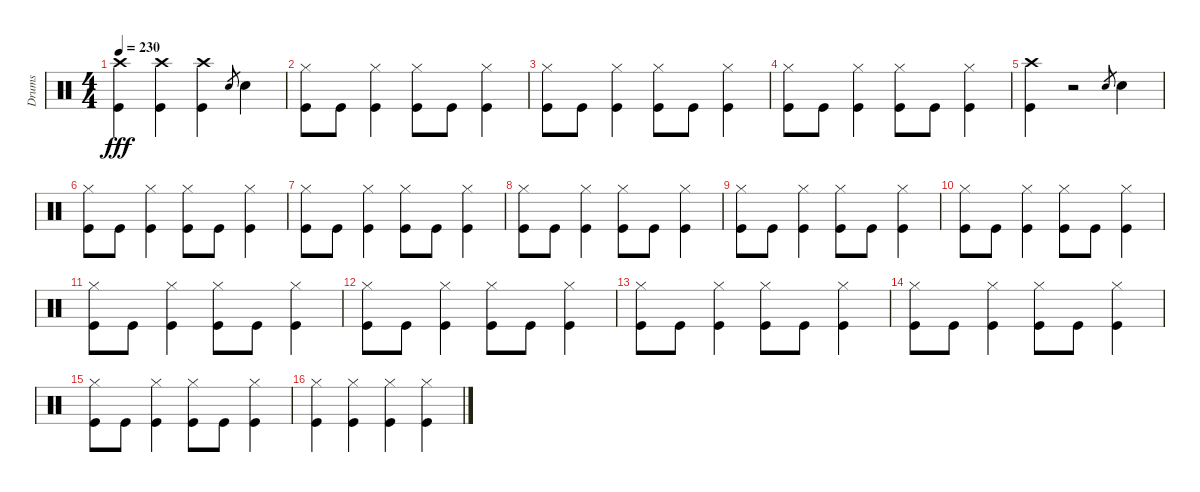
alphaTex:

\track ("Drums" "Drums") {instrument percussion}
\staff {score}
\articulation defaults
\ts (4 4)
\tempo 230
\clef neutral
\ks c
("Crash high (hit)" "Kick (hit)").4{dy fff} ("Crash high (hit)" "Kick (hit)").4 ("Crash high (hit)" "Kick (hit)").4 "Snare (hit) 2".8{gr} "Snare (hit) 2".4 |
("Hi-Hat (closed)" "Kick (hit)").8 "Kick (hit)".8 ("Hi-Hat (closed)" "Kick (hit)").4 ("Hi-Hat (closed)" "Kick (hit)").8 "Kick (hit)".8 ("Hi-Hat (closed)" "Kick (hit)").4 |
("Hi-Hat (closed)" "Kick (hit)").8 "Kick (hit)".8 ("Hi-Hat (closed)" "Kick (hit)").4 ("Hi-Hat (closed)" "Kick (hit)").8 "Kick (hit)".8 ("Hi-Hat (closed)" "Kick (hit)").4 |
("Hi-Hat (closed)" "Kick (hit)").8 "Kick (hit)".8 ("Hi-Hat (closed)" "Kick (hit)").4 ("Hi-Hat (closed)" "Kick (hit)").8 "Kick (hit)".8 ("Hi-Hat (closed)" "Kick (hit)").4 |
("Crash high (hit)" "Kick (hit)").4 r.2 "Snare (hit) 2".8{gr} "Snare (hit) 2".4 |
("Hi-Hat (closed)" "Kick (hit)").8 "Kick (hit)".8 ("Hi-Hat (closed)" "Kick (hit)").4 ("Hi-Hat (closed)" "Kick (hit)").8 "Kick (hit)".8 ("Hi-Hat (closed)" "Kick (hit)").4 |
("Hi-Hat (closed)" "Kick (hit)").8 "Kick (hit)".8 ("Hi-Hat (closed)" "Kick (hit)").4 ("Hi-Hat (closed)" "Kick (hit)").8 "Kick (hit)".8 ("Hi-Hat (closed)" "Kick (hit)").4 |
("Hi-Hat (closed)" "Kick (hit)").8 "Kick (hit)".8 ("Hi-Hat (closed)" "Kick (hit)").4 ("Hi-Hat (closed)" "Kick (hit)").8 "Kick (hit)".8 ("Hi-Hat (closed)" "Kick (hit)").4 |
("Hi-Hat (closed)" "Kick (hit)").8 "Kick (hit)".8 ("Hi-Hat (closed)" "Kick (hit)").4 ("Hi-Hat (closed)" "Kick (hit)").8 "Kick (hit)".8 ("Hi-Hat (closed)" "Kick (hit)").4 |
("Hi-Hat (closed)" "Kick (hit)").8 "Kick (hit)".8 ("Hi-Hat (closed)" "Kick (hit)").4 ("Hi-Hat (closed)" "Kick (hit)").8 "Kick (hit)".8 ("Hi-Hat (closed)" "Kick (hit)").4 |
("Hi-Hat (closed)" "Kick (hit)").8 "Kick (hit)".8 ("Hi-Hat (closed)" "Kick (hit)").4 ("Hi-Hat (closed)" "Kick (hit)").8 "Kick (hit)".8 ("Hi-Hat (closed)" "Kick (hit)").4 |
("Hi-Hat (closed)" "Kick (hit)").8 "Kick (hit)".8 ("Hi-Hat (closed)" "Kick (hit)").4 ("Hi-Hat (closed)" "Kick (hit)").8 "Kick (hit)".8 ("Hi-Hat (closed)" "Kick (hit)").4 |
("Hi-Hat (closed)" "Kick (hit)").8 "Kick (hit)".8 ("Hi-Hat (closed)" "Kick (hit)").4 ("Hi-Hat (closed)" "Kick (hit)").8 "Kick (hit)".8 ("Hi-Hat (closed)" "Kick (hit)").4 |
("Hi-Hat (closed)" "Kick (hit)").8 "Kick (hit)".8 ("Hi-Hat (closed)" "Kick (hit)").4 ("Hi-Hat (closed)" "Kick (hit)").8 "Kick (hit)".8 ("Hi-Hat (closed)" "Kick (hit)").4 |
("Hi-Hat (closed)" "Kick (hit)").8 "Kick (hit)".8 ("Hi-Hat (closed)" "Kick (hit)").4 ("Hi-Hat (closed)" "Kick (hit)").8 "Kick (hit)".8 ("Hi-Hat (closed)" "Kick (hit)").4 |
("Hi-Hat (closed)" "Kick (hit)").4 ("Hi-Hat (closed)" "Kick (hit)").4 ("Hi-Hat (closed)" "Kick (hit)").4 ("Hi-Hat (closed)" "Kick (hit)").4
